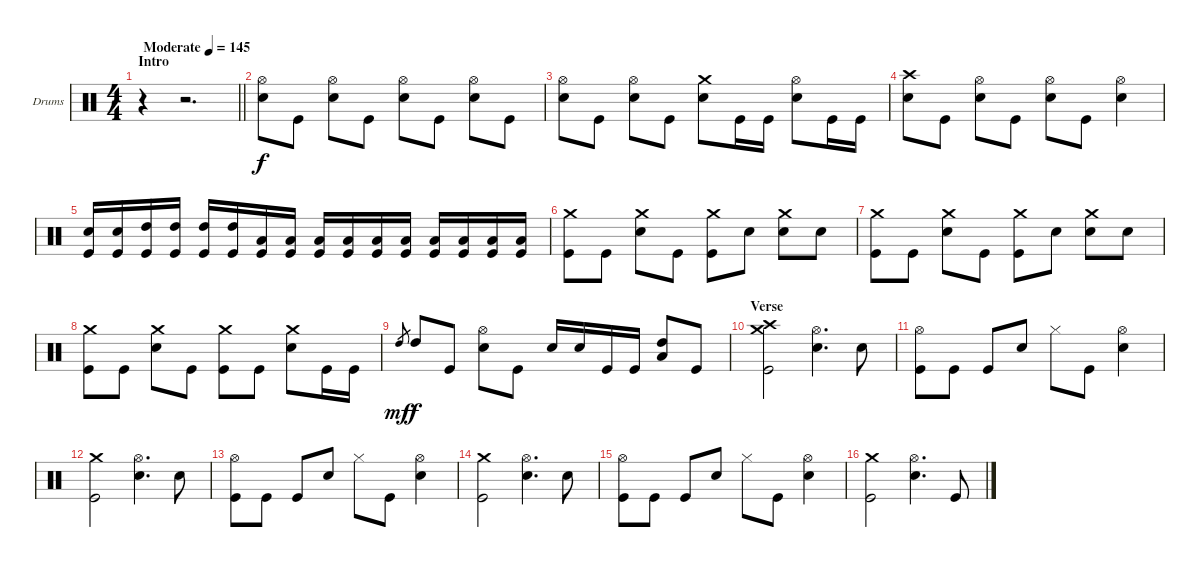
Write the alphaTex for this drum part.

\bracketExtendMode groupsimilarinstruments
\firstSystemTrackNameOrientation horizontal
\otherSystemsTrackNameOrientation horizontal
\track ("Drumkit" "Drums") {instrument percussion}
\staff {score}
\articulation defaults
\ts (4 4)
\beaming (8 2 2 2 2)
\section ("" "Intro")
\tempo (145 "Moderate")
\clef neutral
\barLineRight lightlight
\ks c
r.4{dy f} r.2{d} |
("Hi-Hat (open)" "Snare (hit) 2").8 "Kick (hit)".8 ("Hi-Hat (open)" "Snare (hit) 2").8 "Kick (hit)".8 ("Hi-Hat (open)" "Snare (hit) 2").8 "Kick (hit)".8 ("Hi-Hat (open)" "Snare (hit) 2").8 "Kick (hit)".8 |
("Hi-Hat (open)" "Snare (hit) 2").8 "Kick (hit)".8 ("Hi-Hat (open)" "Snare (hit) 2").8 "Kick (hit)".8 ("Crash medium (hit)" "Snare (hit) 2").8 "Kick (hit)".16 "Kick (hit)".16 ("Hi-Hat (open)" "Snare (hit) 2").8 "Kick (hit)".16 "Kick (hit)".16 |
("Crash high (hit)" "Snare (hit) 2").8 "Kick (hit)".8 ("Hi-Hat (open)" "Snare (hit) 2").8 "Kick (hit)".8 ("Hi-Hat (open)" "Snare (hit) 2").8 "Kick (hit)".8 ("Hi-Hat (open)" "Snare (hit) 2").4 |
("Snare (hit) 2" "Kick (hit)").16 ("Snare (hit) 2" "Kick (hit)").16 ("High Tom (hit)" "Kick (hit)").16 ("High Tom (hit)" "Kick (hit)").16 ("High Tom (hit)" "Kick (hit)").16 ("High Tom (hit)" "Kick (hit)").16 ("Low Tom (hit)" "Kick (hit)").16 ("Low Tom (hit)" "Kick (hit)").16 ("Low Tom (hit)" "Kick (hit)").16 ("Low Tom (hit)" "Kick (hit)").16 ("Low Tom (hit)" "Kick (hit)").16 ("Low Tom (hit)" "Kick (hit)").16 ("Low Tom (hit)" "Kick (hit)").16 ("Low Tom (hit)" "Kick (hit)").16 ("Low Tom (hit)" "Kick (hit)").16 ("Low Tom (hit)" "Kick (hit)").16 |
("Crash medium (hit)" "Kick (hit)").8 "Kick (hit)".8 ("Crash medium (hit)" "Snare (hit) 2").8 "Kick (hit)".8 ("Crash medium (hit)" "Kick (hit)").8 "Snare (hit) 2".8 ("Crash medium (hit)" "Snare (hit) 2").8 "Snare (hit) 2".8 |
("Crash medium (hit)" "Kick (hit)").8 "Kick (hit)".8 ("Crash medium (hit)" "Snare (hit) 2").8 "Kick (hit)".8 ("Crash medium (hit)" "Kick (hit)").8 "Snare (hit) 2".8 ("Crash medium (hit)" "Snare (hit) 2").8 "Snare (hit) 2".8 |
("Crash medium (hit)" "Kick (hit)").8 "Kick (hit)".8 ("Crash medium (hit)" "Snare (hit) 2").8 "Kick (hit)".8 ("Crash medium (hit)" "Kick (hit)").8 "Kick (hit)".8 ("Crash medium (hit)" "Snare (hit) 2").8 "Kick (hit)".16 "Kick (hit)".16 |
"High Tom (hit)".8{gr dy mf} "High Tom (hit)".8{dy f} "Kick (hit)".8 ("Hi-Hat (open)" "Snare (hit) 2").8 "Kick (hit)".8 "Snare (hit) 2".16 "Snare (hit) 2".16 "Kick (hit)".16 "Kick (hit)".16 ("High Tom (hit)" "Low Tom (hit)").8 "Kick (hit)".8 |
\section ("" "Verse")
("Crash medium (hit)" "Crash high (hit)" "Kick (hit)").2 ("Hi-Hat (open)" "Snare (hit) 2").4{d} "Snare (hit) 2".8 |
("Hi-Hat (open)" "Kick (hit)").8 "Kick (hit)".8 "Kick (hit)".8 "Snare (hit) 2".8 "Hi-Hat (closed)".8 "Kick (hit)".8 ("Hi-Hat (open)" "Snare (hit) 2").4 |
("Crash medium (hit)" "Kick (hit)").2 ("Hi-Hat (open)" "Snare (hit) 2").4{d} "Snare (hit) 2".8 |
("Hi-Hat (open)" "Kick (hit)").8 "Kick (hit)".8 "Kick (hit)".8 "Snare (hit) 2".8 "Hi-Hat (closed)".8 "Kick (hit)".8 ("Hi-Hat (open)" "Snare (hit) 2").4 |
("Crash medium (hit)" "Kick (hit)").2 ("Hi-Hat (open)" "Snare (hit) 2").4{d} "Snare (hit) 2".8 |
("Hi-Hat (open)" "Kick (hit)").8 "Kick (hit)".8 "Kick (hit)".8 "Snare (hit) 2".8 "Hi-Hat (closed)".8 "Kick (hit)".8 ("Hi-Hat (open)" "Snare (hit) 2").4 |
("Crash medium (hit)" "Kick (hit)").2 ("Hi-Hat (open)" "Snare (hit) 2").4{d} "Kick (hit)".8
